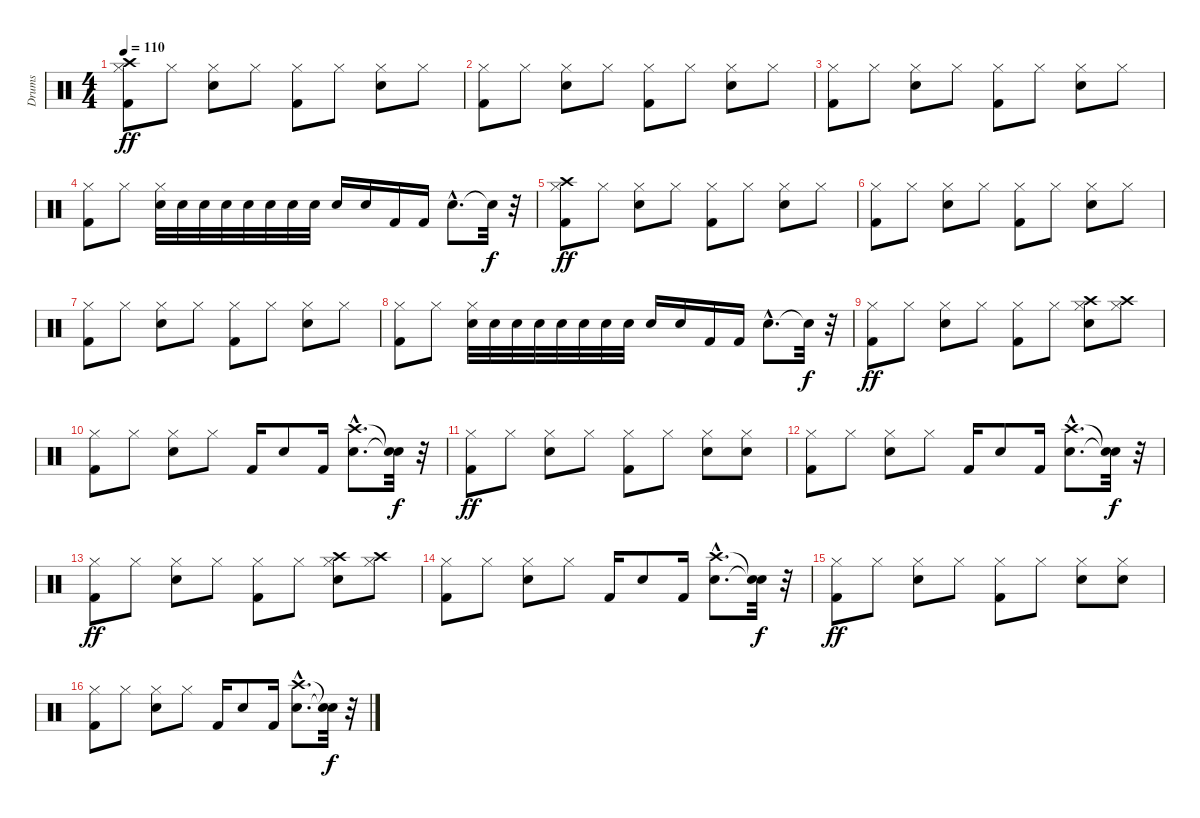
\track ("Drums" "Drums") {instrument percussion}
\staff {score}
\articulation defaults
\ts (4 4)
\tempo 110
\clef neutral
\ks c
("Kick (hit) 2" "Hi-Hat (closed)" "Crash high (hit)").8{dy ff} "Hi-Hat (closed)".8 ("Snare (hit) 2" "Hi-Hat (closed)").8 "Hi-Hat (closed)".8 ("Kick (hit) 2" "Hi-Hat (closed)").8 "Hi-Hat (closed)".8 ("Snare (hit) 2" "Hi-Hat (closed)").8 "Hi-Hat (closed)".8 |
("Kick (hit) 2" "Hi-Hat (closed)").8 "Hi-Hat (closed)".8 ("Snare (hit) 2" "Hi-Hat (closed)").8 "Hi-Hat (closed)".8 ("Kick (hit) 2" "Hi-Hat (closed)").8 "Hi-Hat (closed)".8 ("Snare (hit) 2" "Hi-Hat (closed)").8 "Hi-Hat (closed)".8 |
("Kick (hit) 2" "Hi-Hat (closed)").8 "Hi-Hat (closed)".8 ("Snare (hit) 2" "Hi-Hat (closed)").8 "Hi-Hat (closed)".8 ("Kick (hit) 2" "Hi-Hat (closed)").8 "Hi-Hat (closed)".8 ("Snare (hit) 2" "Hi-Hat (closed)").8 "Hi-Hat (closed)".8 |
("Kick (hit) 2" "Hi-Hat (closed)").8 "Hi-Hat (closed)".8 ("Snare (hit) 2" "Hi-Hat (closed)").32 "Snare (hit) 2".32 "Snare (hit) 2".32 "Snare (hit) 2".32 "Snare (hit) 2".32 "Snare (hit) 2".32 "Snare (hit) 2".32 "Snare (hit) 2".32 "Snare (hit) 2".16 "Snare (hit) 2".16 "Kick (hit) 2".16 "Kick (hit) 2".16 "Snare (hit) 2"{hac}.8{d} "Snare (hit)"{t}.32{dy f} r.32 |
("Kick (hit) 2" "Hi-Hat (closed)" "Crash high (hit)").8{dy ff} "Hi-Hat (closed)".8 ("Snare (hit) 2" "Hi-Hat (closed)").8 "Hi-Hat (closed)".8 ("Kick (hit) 2" "Hi-Hat (closed)").8 "Hi-Hat (closed)".8 ("Snare (hit) 2" "Hi-Hat (closed)").8 "Hi-Hat (closed)".8 |
("Kick (hit) 2" "Hi-Hat (closed)").8 "Hi-Hat (closed)".8 ("Snare (hit) 2" "Hi-Hat (closed)").8 "Hi-Hat (closed)".8 ("Kick (hit) 2" "Hi-Hat (closed)").8 "Hi-Hat (closed)".8 ("Snare (hit) 2" "Hi-Hat (closed)").8 "Hi-Hat (closed)".8 |
("Kick (hit) 2" "Hi-Hat (closed)").8 "Hi-Hat (closed)".8 ("Snare (hit) 2" "Hi-Hat (closed)").8 "Hi-Hat (closed)".8 ("Kick (hit) 2" "Hi-Hat (closed)").8 "Hi-Hat (closed)".8 ("Snare (hit) 2" "Hi-Hat (closed)").8 "Hi-Hat (closed)".8 |
("Kick (hit) 2" "Hi-Hat (closed)").8 "Hi-Hat (closed)".8 ("Snare (hit) 2" "Hi-Hat (closed)").32 "Snare (hit) 2".32 "Snare (hit) 2".32 "Snare (hit) 2".32 "Snare (hit) 2".32 "Snare (hit) 2".32 "Snare (hit) 2".32 "Snare (hit) 2".32 "Snare (hit) 2".16 "Snare (hit) 2".16 "Kick (hit) 2".16 "Kick (hit) 2".16 "Snare (hit) 2"{hac}.8{d} "Snare (hit)"{t}.32{dy f} r.32 |
("Kick (hit) 2" "Hi-Hat (closed)").8{dy ff} "Hi-Hat (closed)".8 ("Snare (hit) 2" "Hi-Hat (closed)").8 "Hi-Hat (closed)".8 ("Kick (hit) 2" "Hi-Hat (closed)").8 "Hi-Hat (closed)".8 ("Snare (hit) 2" "Hi-Hat (closed)" "Crash high (hit)").8 ("Hi-Hat (closed)" "Crash high (hit)").8 |
("Kick (hit) 2" "Hi-Hat (closed)").8 "Hi-Hat (closed)".8 ("Snare (hit) 2" "Hi-Hat (closed)").8 "Hi-Hat (closed)".8 "Kick (hit) 2".16 "Snare (hit) 2".8 "Kick (hit) 2".16 ("Snare (hit) 2"{hac} "Crash high (hit)"{hac}).8{d} ("Snare (hit)"{t} "Snare (hit)"{t}).32{dy f} r.32 |
("Kick (hit) 2" "Hi-Hat (closed)").8{dy ff} "Hi-Hat (closed)".8 ("Snare (hit) 2" "Hi-Hat (closed)").8 "Hi-Hat (closed)".8 ("Kick (hit) 2" "Hi-Hat (closed)").8 "Hi-Hat (closed)".8 ("Snare (hit) 2" "Hi-Hat (closed)").8 ("Snare (hit) 2" "Hi-Hat (closed)").8 |
("Kick (hit) 2" "Hi-Hat (closed)").8 "Hi-Hat (closed)".8 ("Snare (hit) 2" "Hi-Hat (closed)").8 "Hi-Hat (closed)".8 "Kick (hit) 2".16 "Snare (hit) 2".8 "Kick (hit) 2".16 ("Snare (hit) 2"{hac} "Crash high (hit)"{hac}).8{d} ("Snare (hit)"{t} "Snare (hit)"{t}).32{dy f} r.32 |
("Kick (hit) 2" "Hi-Hat (closed)").8{dy ff} "Hi-Hat (closed)".8 ("Snare (hit) 2" "Hi-Hat (closed)").8 "Hi-Hat (closed)".8 ("Kick (hit) 2" "Hi-Hat (closed)").8 "Hi-Hat (closed)".8 ("Snare (hit) 2" "Hi-Hat (closed)" "Crash high (hit)").8 ("Hi-Hat (closed)" "Crash high (hit)").8 |
("Kick (hit) 2" "Hi-Hat (closed)").8 "Hi-Hat (closed)".8 ("Snare (hit) 2" "Hi-Hat (closed)").8 "Hi-Hat (closed)".8 "Kick (hit) 2".16 "Snare (hit) 2".8 "Kick (hit) 2".16 ("Snare (hit) 2"{hac} "Crash high (hit)"{hac}).8{d} ("Snare (hit)"{t} "Snare (hit)"{t}).32{dy f} r.32 |
("Kick (hit) 2" "Hi-Hat (closed)").8{dy ff} "Hi-Hat (closed)".8 ("Snare (hit) 2" "Hi-Hat (closed)").8 "Hi-Hat (closed)".8 ("Kick (hit) 2" "Hi-Hat (closed)").8 "Hi-Hat (closed)".8 ("Snare (hit) 2" "Hi-Hat (closed)").8 ("Snare (hit) 2" "Hi-Hat (closed)").8 |
("Kick (hit) 2" "Hi-Hat (closed)").8 "Hi-Hat (closed)".8 ("Snare (hit) 2" "Hi-Hat (closed)").8 "Hi-Hat (closed)".8 "Kick (hit) 2".16 "Snare (hit) 2".8 "Kick (hit) 2".16 ("Snare (hit) 2"{hac} "Crash high (hit)"{hac}).8{d} ("Snare (hit)"{t} "Snare (hit)"{t}).32{dy f} r.32
